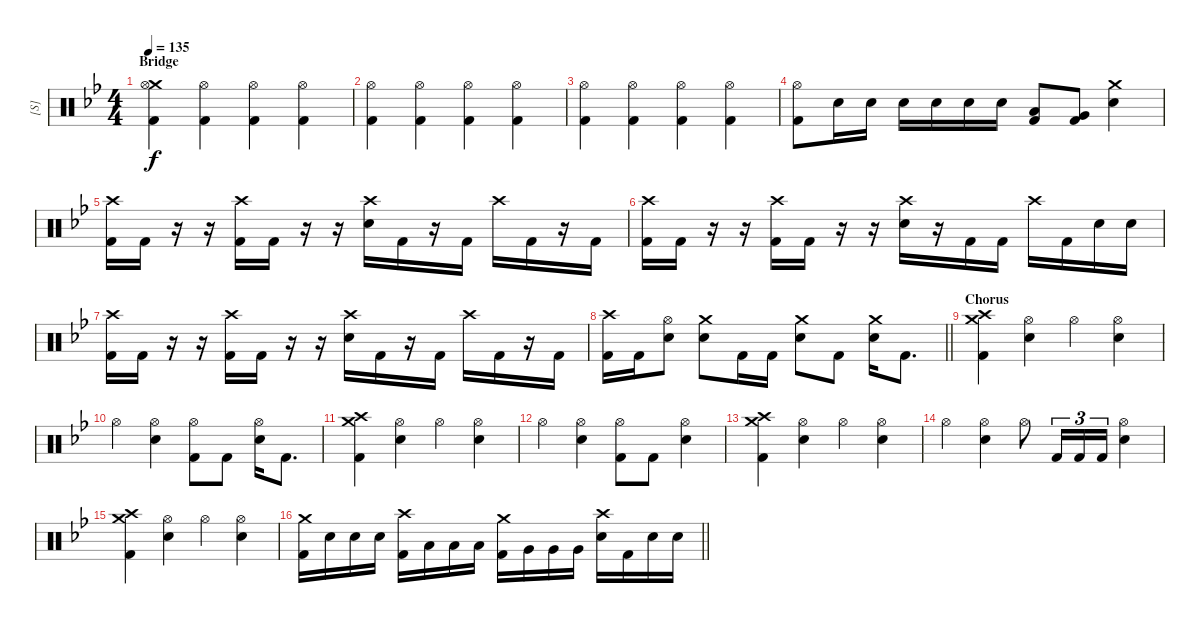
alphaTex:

\track ("[S]" "[S]") {instrument percussion}
\staff {score}
\articulation defaults
\ts (4 4)
\section ("" "Bridge")
\tempo 135
\clef neutral
\ks gminor
("Crash medium (hit)" "Hi-Hat (open)" "Kick (hit) 2").4{dy f} ("Hi-Hat (open)" "Kick (hit) 2").4 ("Hi-Hat (open)" "Kick (hit) 2").4 ("Hi-Hat (open)" "Kick (hit) 2").4 |
("Hi-Hat (open)" "Kick (hit) 2").4 ("Hi-Hat (open)" "Kick (hit) 2").4 ("Hi-Hat (open)" "Kick (hit) 2").4 ("Hi-Hat (open)" "Kick (hit) 2").4 |
("Hi-Hat (open)" "Kick (hit) 2").4 ("Hi-Hat (open)" "Kick (hit) 2").4 ("Hi-Hat (open)" "Kick (hit) 2").4 ("Hi-Hat (open)" "Kick (hit) 2").4 |
("Hi-Hat (open)" "Kick (hit) 2").8 "Electric Snare (hit)".16 "Electric Snare (hit)".16 "Electric Snare (hit)".16 "Electric Snare (hit)".16 "Electric Snare (hit)".16 "Electric Snare (hit)".16 ("Low Tom (hit)" "Kick (hit) 2").8 ("Very Low Tom (hit)" "Kick (hit) 2").8 ("Crash medium (hit)" "Electric Snare (hit)").4 |
("Crash high (hit)" "Kick (hit) 2").16 "Kick (hit) 2".16 r.16 r.16 ("Crash high (hit)" "Kick (hit) 2").16 "Kick (hit) 2".16 r.16 r.16 ("Crash high (hit)" "Electric Snare (hit)").16 "Kick (hit) 2".16 r.16 "Kick (hit) 2".16 "Crash high (hit)".16 "Kick (hit) 2".16 r.16 "Kick (hit) 2".16 |
("Crash high (hit)" "Kick (hit) 2").16 "Kick (hit) 2".16 r.16 r.16 ("Crash high (hit)" "Kick (hit) 2").16 "Kick (hit) 2".16 r.16 r.16 ("Crash high (hit)" "Electric Snare (hit)").16 r.16 "Kick (hit) 2".16 "Kick (hit) 2".16 "Crash high (hit)".16 "Kick (hit) 2".16 "Electric Snare (hit)".16 "Electric Snare (hit)".16 |
("Crash high (hit)" "Kick (hit) 2").16 "Kick (hit) 2".16 r.16 r.16 ("Crash high (hit)" "Kick (hit) 2").16 "Kick (hit) 2".16 r.16 r.16 ("Crash high (hit)" "Electric Snare (hit)").16 "Kick (hit) 2".16 r.16 "Kick (hit) 2".16 "Crash high (hit)".16 "Kick (hit) 2".16 r.16 "Kick (hit) 2".16 |
\barLineRight lightlight
("Crash high (hit)" "Kick (hit) 2").16 "Kick (hit) 2".16 ("Hi-Hat (open)" "Electric Snare (hit)").8 ("Crash medium (hit)" "Electric Snare (hit)").8 "Kick (hit) 2".16 "Kick (hit) 2".16 ("Crash medium (hit)" "Electric Snare (hit)").8 "Kick (hit) 2".8 ("Crash medium (hit)" "Electric Snare (hit)").16 "Kick (hit) 2".8{d} |
\section ("" "Chorus")
("Crash high (hit)" "Crash medium (hit)" "Kick (hit) 2").4 ("Hi-Hat (open)" "Electric Snare (hit)").4 "Hi-Hat (open)".4 ("Hi-Hat (open)" "Electric Snare (hit)").4 |
"Hi-Hat (open)".4 ("Hi-Hat (open)" "Electric Snare (hit)").4 ("Hi-Hat (open)" "Kick (hit) 2").8 "Kick (hit) 2".8 ("Hi-Hat (open)" "Electric Snare (hit)").16 "Kick (hit) 2".8{d} |
("Crash high (hit)" "Crash medium (hit)" "Kick (hit) 2").4 ("Hi-Hat (open)" "Electric Snare (hit)").4 "Hi-Hat (open)".4 ("Hi-Hat (open)" "Electric Snare (hit)").4 |
"Hi-Hat (open)".4 ("Hi-Hat (open)" "Electric Snare (hit)").4 ("Hi-Hat (open)" "Kick (hit) 2").8 "Kick (hit) 2".8 ("Hi-Hat (open)" "Electric Snare (hit)").4 |
("Crash high (hit)" "Crash medium (hit)" "Kick (hit) 2").4 ("Hi-Hat (open)" "Electric Snare (hit)").4 "Hi-Hat (open)".4 ("Hi-Hat (open)" "Electric Snare (hit)").4 |
"Hi-Hat (open)".4 ("Hi-Hat (open)" "Electric Snare (hit)").4 "Hi-Hat (open)".8 "Kick (hit) 2".16{tu (3 2)} "Kick (hit) 2".16{tu (3 2)} "Kick (hit) 2".16{tu (3 2)} ("Hi-Hat (open)" "Electric Snare (hit)").4 |
("Crash high (hit)" "Crash medium (hit)" "Kick (hit) 2").4 ("Hi-Hat (open)" "Electric Snare (hit)").4 "Hi-Hat (open)".4 ("Hi-Hat (open)" "Electric Snare (hit)").4 |
\barLineRight lightlight
("Crash medium (hit)" "Kick (hit) 2").16 "Electric Snare (hit)".16 "Electric Snare (hit)".16 "Electric Snare (hit)".16 ("Crash high (hit)" "Kick (hit) 2").16 "Low Tom (hit)".16 "Low Tom (hit)".16 "Low Tom (hit)".16 ("Crash medium (hit)" "Kick (hit) 2").16 "Very Low Tom (hit)".16 "Very Low Tom (hit)".16 "Very Low Tom (hit)".16 ("Crash high (hit)" "Electric Snare (hit)").16 "Kick (hit) 2".16 "Electric Snare (hit)".16 "Electric Snare (hit)".16
